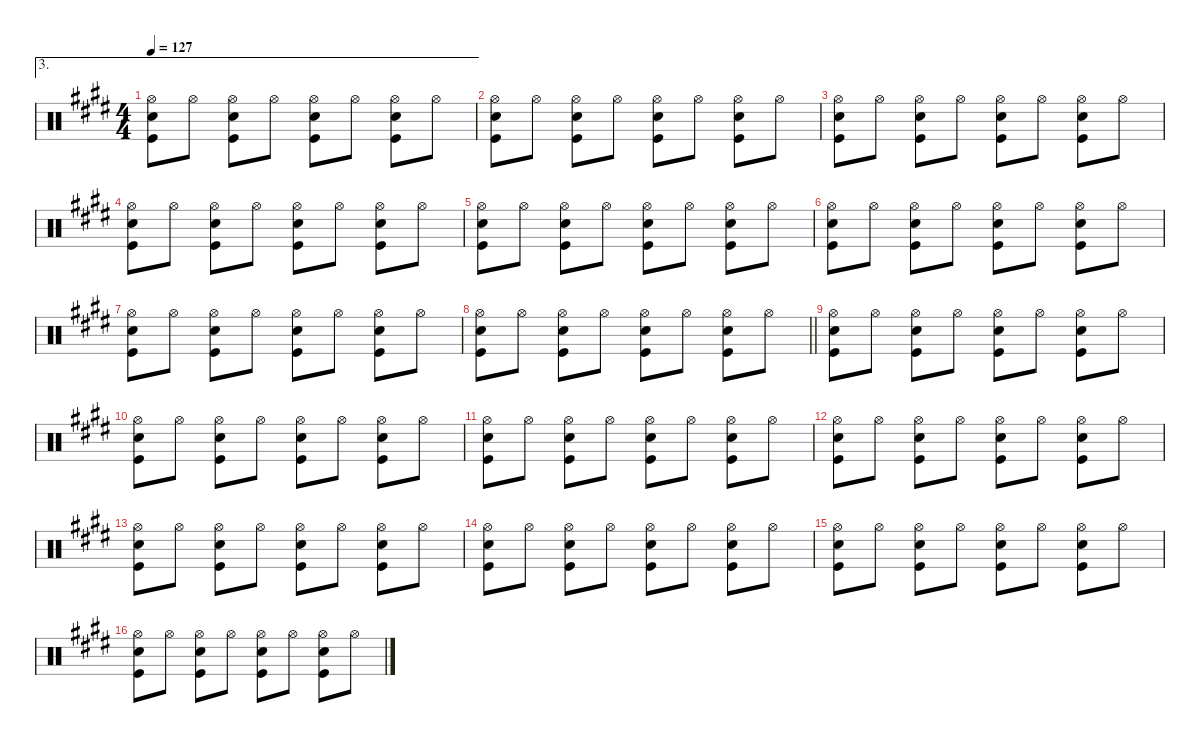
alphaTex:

\defaultSystemsLayout 4
\hideDynamics
\bracketExtendMode nobrackets
\singleTrackTrackNamePolicy hidden
\multiTrackTrackNamePolicy hidden
\otherSystemsTrackNameOrientation horizontal
\track ("Charlie Watts" "drm.") {instrument percussion}
\staff {score}
\articulation defaults
\ae 3
\ts (4 4)
\tempo 127
\clef neutral
\ks e
("Hi-Hat (open)"{acc forcenatural} "Snare (hit) 2"{acc forcenatural} "Kick (hit)"{acc forcenatural}).8{dy ff beam Down} "Hi-Hat (open)"{acc forcenatural}.8{beam Down} ("Hi-Hat (open)"{acc forcenatural} "Kick (hit)"{acc forcenatural} "Snare (hit) 2"{acc forcenatural}).8{beam Down} "Hi-Hat (open)"{acc forcenatural}.8{beam Down} ("Hi-Hat (open)"{acc forcenatural} "Snare (hit) 2"{acc forcenatural} "Kick (hit)"{acc forcenatural}).8{beam Down} "Hi-Hat (open)"{acc forcenatural}.8{beam Down} ("Hi-Hat (open)"{acc forcenatural} "Kick (hit)"{acc forcenatural} "Snare (hit) 2"{acc forcenatural}).8{beam Down} "Hi-Hat (open)"{acc forcenatural}.8{beam Down} |
("Hi-Hat (open)"{acc forcenatural} "Snare (hit) 2"{acc forcenatural} "Kick (hit)"{acc forcenatural}).8{beam Down} "Hi-Hat (open)"{acc forcenatural}.8{beam Down} ("Hi-Hat (open)"{acc forcenatural} "Kick (hit)"{acc forcenatural} "Snare (hit) 2"{acc forcenatural}).8{beam Down} "Hi-Hat (open)"{acc forcenatural}.8{beam Down} ("Hi-Hat (open)"{acc forcenatural} "Snare (hit) 2"{acc forcenatural} "Kick (hit)"{acc forcenatural}).8{beam Down} "Hi-Hat (open)"{acc forcenatural}.8{beam Down} ("Hi-Hat (open)"{acc forcenatural} "Kick (hit)"{acc forcenatural} "Snare (hit) 2"{acc forcenatural}).8{beam Down} "Hi-Hat (open)"{acc forcenatural}.8{beam Down} |
("Hi-Hat (open)"{acc forcenatural} "Snare (hit) 2"{acc forcenatural} "Kick (hit)"{acc forcenatural}).8{beam Down} "Hi-Hat (open)"{acc forcenatural}.8{beam Down} ("Hi-Hat (open)"{acc forcenatural} "Kick (hit)"{acc forcenatural} "Snare (hit) 2"{acc forcenatural}).8{beam Down} "Hi-Hat (open)"{acc forcenatural}.8{beam Down} ("Hi-Hat (open)"{acc forcenatural} "Snare (hit) 2"{acc forcenatural} "Kick (hit)"{acc forcenatural}).8{beam Down} "Hi-Hat (open)"{acc forcenatural}.8{beam Down} ("Hi-Hat (open)"{acc forcenatural} "Kick (hit)"{acc forcenatural} "Snare (hit) 2"{acc forcenatural}).8{beam Down} "Hi-Hat (open)"{acc forcenatural}.8{beam Down} |
("Hi-Hat (open)"{acc forcenatural} "Snare (hit) 2"{acc forcenatural} "Kick (hit)"{acc forcenatural}).8{beam Down} "Hi-Hat (open)"{acc forcenatural}.8{beam Down} ("Hi-Hat (open)"{acc forcenatural} "Kick (hit)"{acc forcenatural} "Snare (hit) 2"{acc forcenatural}).8{beam Down} "Hi-Hat (open)"{acc forcenatural}.8{beam Down} ("Hi-Hat (open)"{acc forcenatural} "Snare (hit) 2"{acc forcenatural} "Kick (hit)"{acc forcenatural}).8{beam Down} "Hi-Hat (open)"{acc forcenatural}.8{beam Down} ("Hi-Hat (open)"{acc forcenatural} "Kick (hit)"{acc forcenatural} "Snare (hit) 2"{acc forcenatural}).8{beam Down} "Hi-Hat (open)"{acc forcenatural}.8{beam Down} |
("Hi-Hat (open)"{acc forcenatural} "Snare (hit) 2"{acc forcenatural} "Kick (hit)"{acc forcenatural}).8{beam Down} "Hi-Hat (open)"{acc forcenatural}.8{beam Down} ("Hi-Hat (open)"{acc forcenatural} "Kick (hit)"{acc forcenatural} "Snare (hit) 2"{acc forcenatural}).8{beam Down} "Hi-Hat (open)"{acc forcenatural}.8{beam Down} ("Hi-Hat (open)"{acc forcenatural} "Snare (hit) 2"{acc forcenatural} "Kick (hit)"{acc forcenatural}).8{beam Down} "Hi-Hat (open)"{acc forcenatural}.8{beam Down} ("Hi-Hat (open)"{acc forcenatural} "Kick (hit)"{acc forcenatural} "Snare (hit) 2"{acc forcenatural}).8{beam Down} "Hi-Hat (open)"{acc forcenatural}.8{beam Down} |
("Hi-Hat (open)"{acc forcenatural} "Snare (hit) 2"{acc forcenatural} "Kick (hit)"{acc forcenatural}).8{beam Down} "Hi-Hat (open)"{acc forcenatural}.8{beam Down} ("Hi-Hat (open)"{acc forcenatural} "Kick (hit)"{acc forcenatural} "Snare (hit) 2"{acc forcenatural}).8{beam Down} "Hi-Hat (open)"{acc forcenatural}.8{beam Down} ("Hi-Hat (open)"{acc forcenatural} "Snare (hit) 2"{acc forcenatural} "Kick (hit)"{acc forcenatural}).8{beam Down} "Hi-Hat (open)"{acc forcenatural}.8{beam Down} ("Hi-Hat (open)"{acc forcenatural} "Kick (hit)"{acc forcenatural} "Snare (hit) 2"{acc forcenatural}).8{beam Down} "Hi-Hat (open)"{acc forcenatural}.8{beam Down} |
("Hi-Hat (open)"{acc forcenatural} "Snare (hit) 2"{acc forcenatural} "Kick (hit)"{acc forcenatural}).8{beam Down} "Hi-Hat (open)"{acc forcenatural}.8{beam Down} ("Hi-Hat (open)"{acc forcenatural} "Kick (hit)"{acc forcenatural} "Snare (hit) 2"{acc forcenatural}).8{beam Down} "Hi-Hat (open)"{acc forcenatural}.8{beam Down} ("Hi-Hat (open)"{acc forcenatural} "Snare (hit) 2"{acc forcenatural} "Kick (hit)"{acc forcenatural}).8{beam Down} "Hi-Hat (open)"{acc forcenatural}.8{beam Down} ("Hi-Hat (open)"{acc forcenatural} "Kick (hit)"{acc forcenatural} "Snare (hit) 2"{acc forcenatural}).8{beam Down} "Hi-Hat (open)"{acc forcenatural}.8{beam Down} |
\barLineRight lightlight
("Hi-Hat (open)"{acc forcenatural} "Snare (hit) 2"{acc forcenatural} "Kick (hit)"{acc forcenatural}).8{beam Down} "Hi-Hat (open)"{acc forcenatural}.8{beam Down} ("Hi-Hat (open)"{acc forcenatural} "Kick (hit)"{acc forcenatural} "Snare (hit) 2"{acc forcenatural}).8{beam Down} "Hi-Hat (open)"{acc forcenatural}.8{beam Down} ("Hi-Hat (open)"{acc forcenatural} "Snare (hit) 2"{acc forcenatural} "Kick (hit)"{acc forcenatural}).8{beam Down} "Hi-Hat (open)"{acc forcenatural}.8{beam Down} ("Hi-Hat (open)"{acc forcenatural} "Kick (hit)"{acc forcenatural} "Snare (hit) 2"{acc forcenatural}).8{beam Down} "Hi-Hat (open)"{acc forcenatural}.8{beam Down} |
("Hi-Hat (open)"{acc forcenatural} "Snare (hit) 2"{acc forcenatural} "Kick (hit)"{acc forcenatural}).8{beam Down} "Hi-Hat (open)"{acc forcenatural}.8{beam Down} ("Hi-Hat (open)"{acc forcenatural} "Kick (hit)"{acc forcenatural} "Snare (hit) 2"{acc forcenatural}).8{beam Down} "Hi-Hat (open)"{acc forcenatural}.8{beam Down} ("Hi-Hat (open)"{acc forcenatural} "Snare (hit) 2"{acc forcenatural} "Kick (hit)"{acc forcenatural}).8{beam Down} "Hi-Hat (open)"{acc forcenatural}.8{beam Down} ("Hi-Hat (open)"{acc forcenatural} "Kick (hit)"{acc forcenatural} "Snare (hit) 2"{acc forcenatural}).8{beam Down} "Hi-Hat (open)"{acc forcenatural}.8{beam Down} |
("Hi-Hat (open)"{acc forcenatural} "Snare (hit) 2"{acc forcenatural} "Kick (hit)"{acc forcenatural}).8{beam Down} "Hi-Hat (open)"{acc forcenatural}.8{beam Down} ("Hi-Hat (open)"{acc forcenatural} "Kick (hit)"{acc forcenatural} "Snare (hit) 2"{acc forcenatural}).8{beam Down} "Hi-Hat (open)"{acc forcenatural}.8{beam Down} ("Hi-Hat (open)"{acc forcenatural} "Snare (hit) 2"{acc forcenatural} "Kick (hit)"{acc forcenatural}).8{beam Down} "Hi-Hat (open)"{acc forcenatural}.8{beam Down} ("Hi-Hat (open)"{acc forcenatural} "Kick (hit)"{acc forcenatural} "Snare (hit) 2"{acc forcenatural}).8{beam Down} "Hi-Hat (open)"{acc forcenatural}.8{beam Down} |
("Hi-Hat (open)"{acc forcenatural} "Snare (hit) 2"{acc forcenatural} "Kick (hit)"{acc forcenatural}).8{beam Down} "Hi-Hat (open)"{acc forcenatural}.8{beam Down} ("Hi-Hat (open)"{acc forcenatural} "Kick (hit)"{acc forcenatural} "Snare (hit) 2"{acc forcenatural}).8{beam Down} "Hi-Hat (open)"{acc forcenatural}.8{beam Down} ("Hi-Hat (open)"{acc forcenatural} "Snare (hit) 2"{acc forcenatural} "Kick (hit)"{acc forcenatural}).8{beam Down} "Hi-Hat (open)"{acc forcenatural}.8{beam Down} ("Hi-Hat (open)"{acc forcenatural} "Kick (hit)"{acc forcenatural} "Snare (hit) 2"{acc forcenatural}).8{beam Down} "Hi-Hat (open)"{acc forcenatural}.8{beam Down} |
("Hi-Hat (open)"{acc forcenatural} "Snare (hit) 2"{acc forcenatural} "Kick (hit)"{acc forcenatural}).8{dy mf beam Down} "Hi-Hat (open)"{acc forcenatural}.8{beam Down} ("Hi-Hat (open)"{acc forcenatural} "Kick (hit)"{acc forcenatural} "Snare (hit) 2"{acc forcenatural}).8{beam Down} "Hi-Hat (open)"{acc forcenatural}.8{beam Down} ("Hi-Hat (open)"{acc forcenatural} "Snare (hit) 2"{acc forcenatural} "Kick (hit)"{acc forcenatural}).8{beam Down} "Hi-Hat (open)"{acc forcenatural}.8{beam Down} ("Hi-Hat (open)"{acc forcenatural} "Kick (hit)"{acc forcenatural} "Snare (hit) 2"{acc forcenatural}).8{beam Down} "Hi-Hat (open)"{acc forcenatural}.8{beam Down} |
("Hi-Hat (open)"{acc forcenatural} "Snare (hit) 2"{acc forcenatural} "Kick (hit)"{acc forcenatural}).8{dy mp beam Down} "Hi-Hat (open)"{acc forcenatural}.8{beam Down} ("Hi-Hat (open)"{acc forcenatural} "Kick (hit)"{acc forcenatural} "Snare (hit) 2"{acc forcenatural}).8{beam Down} "Hi-Hat (open)"{acc forcenatural}.8{beam Down} ("Hi-Hat (open)"{acc forcenatural} "Snare (hit) 2"{acc forcenatural} "Kick (hit)"{acc forcenatural}).8{beam Down} "Hi-Hat (open)"{acc forcenatural}.8{beam Down} ("Hi-Hat (open)"{acc forcenatural} "Kick (hit)"{acc forcenatural} "Snare (hit) 2"{acc forcenatural}).8{beam Down} "Hi-Hat (open)"{acc forcenatural}.8{beam Down} |
("Hi-Hat (open)"{acc forcenatural} "Snare (hit) 2"{acc forcenatural} "Kick (hit)"{acc forcenatural}).8{dy p beam Down} "Hi-Hat (open)"{acc forcenatural}.8{beam Down} ("Hi-Hat (open)"{acc forcenatural} "Kick (hit)"{acc forcenatural} "Snare (hit) 2"{acc forcenatural}).8{beam Down} "Hi-Hat (open)"{acc forcenatural}.8{beam Down} ("Hi-Hat (open)"{acc forcenatural} "Snare (hit) 2"{acc forcenatural} "Kick (hit)"{acc forcenatural}).8{beam Down} "Hi-Hat (open)"{acc forcenatural}.8{beam Down} ("Hi-Hat (open)"{acc forcenatural} "Kick (hit)"{acc forcenatural} "Snare (hit) 2"{acc forcenatural}).8{beam Down} "Hi-Hat (open)"{acc forcenatural}.8{beam Down} |
("Hi-Hat (open)"{acc forcenatural} "Snare (hit) 2"{acc forcenatural} "Kick (hit)"{acc forcenatural}).8{dy pp beam Down} "Hi-Hat (open)"{acc forcenatural}.8{beam Down} ("Hi-Hat (open)"{acc forcenatural} "Kick (hit)"{acc forcenatural} "Snare (hit) 2"{acc forcenatural}).8{beam Down} "Hi-Hat (open)"{acc forcenatural}.8{beam Down} ("Hi-Hat (open)"{acc forcenatural} "Snare (hit) 2"{acc forcenatural} "Kick (hit)"{acc forcenatural}).8{beam Down} "Hi-Hat (open)"{acc forcenatural}.8{beam Down} ("Hi-Hat (open)"{acc forcenatural} "Kick (hit)"{acc forcenatural} "Snare (hit) 2"{acc forcenatural}).8{beam Down} "Hi-Hat (open)"{acc forcenatural}.8{beam Down} |
("Hi-Hat (open)"{acc forcenatural} "Snare (hit) 2"{acc forcenatural} "Kick (hit)"{acc forcenatural}).8{dy ppp beam Down} "Hi-Hat (open)"{acc forcenatural}.8{beam Down} ("Hi-Hat (open)"{acc forcenatural} "Kick (hit)"{acc forcenatural} "Snare (hit) 2"{acc forcenatural}).8{beam Down} "Hi-Hat (open)"{acc forcenatural}.8{beam Down} ("Hi-Hat (open)"{acc forcenatural} "Snare (hit) 2"{acc forcenatural} "Kick (hit)"{acc forcenatural}).8{beam Down} "Hi-Hat (open)"{acc forcenatural}.8{beam Down} ("Hi-Hat (open)"{acc forcenatural} "Kick (hit)"{acc forcenatural} "Snare (hit) 2"{acc forcenatural}).8{beam Down} "Hi-Hat (open)"{acc forcenatural}.8{beam Down}
